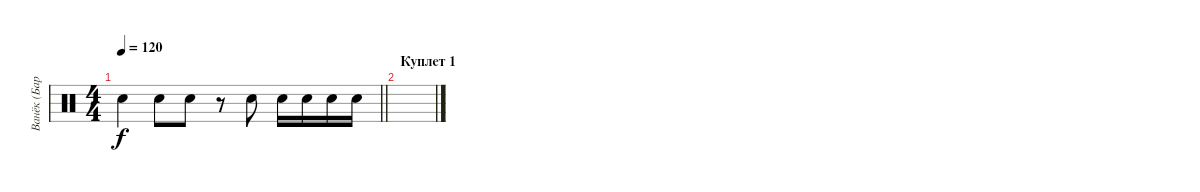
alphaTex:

\track ("Ванёк (Барабанщик)" "Ванёк (Бар") {instrument percussion}
\staff {score}
\articulation defaults
\ts (4 4)
\tempo 120
\clef neutral
\barLineRight lightlight
\ks c "Electric Snare (hit)".4{dy f} "Electric Snare (hit)".8 "Electric Snare (hit)".8
r.8 "Electric Snare (hit)".8 "Electric Snare (hit)".16 "Electric Snare (hit)".16 "Electric Snare (hit)".16 "Electric Snare (hit)".16 |
\section ("" "Куплет 1")
